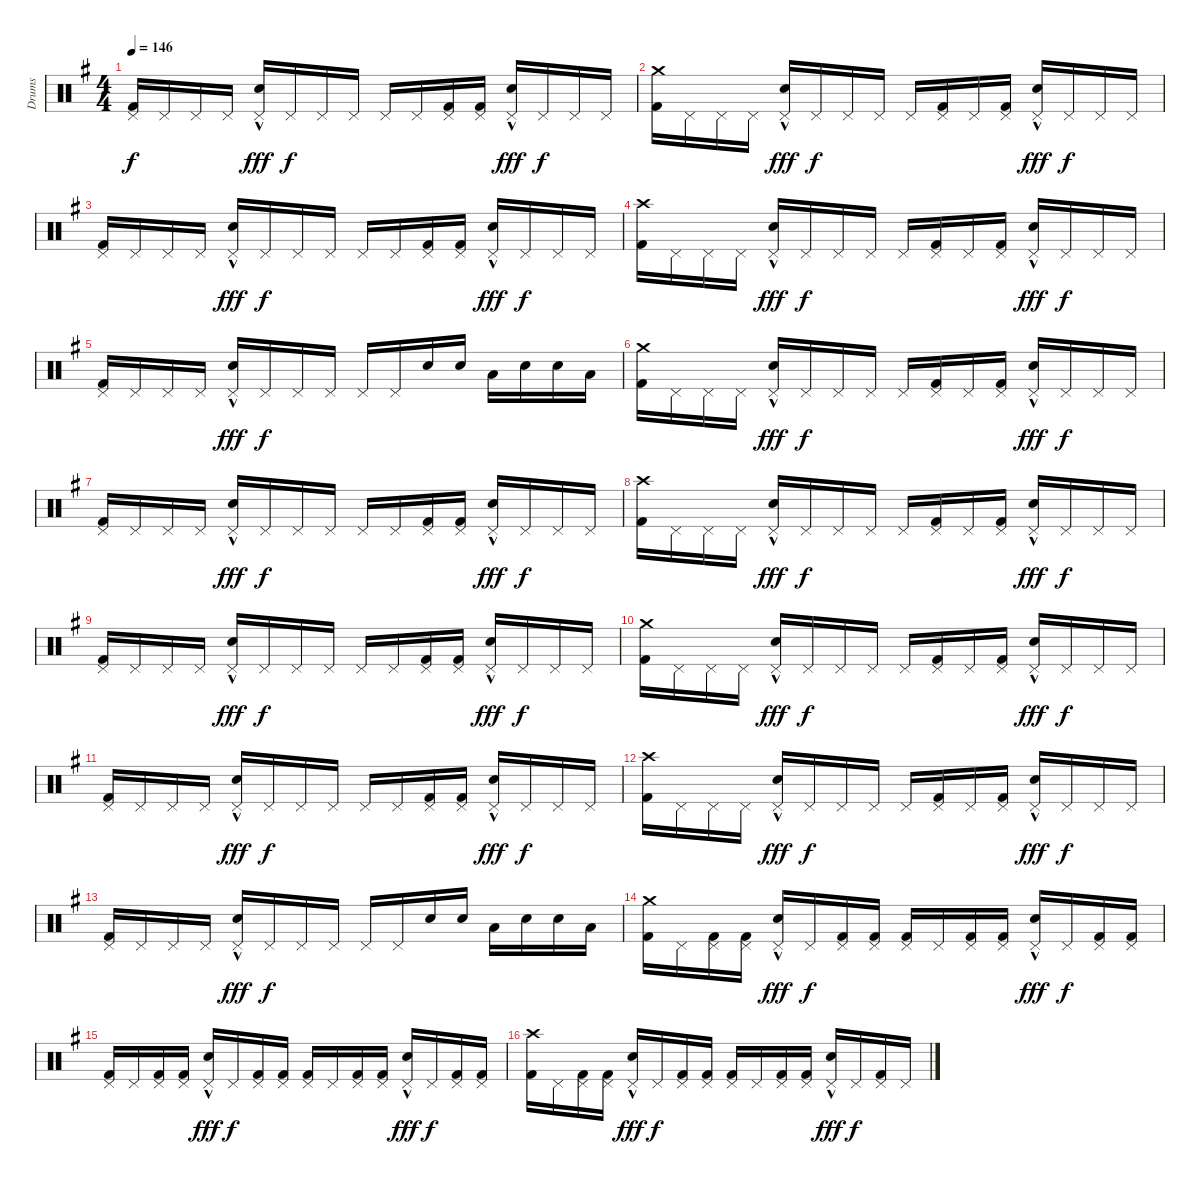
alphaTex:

\track ("Drums" "Drums") {instrument percussion}
\staff {score}
\articulation defaults
\ts (4 4)
\tempo 146
\clef neutral
\ks eminor
("Pedal Hi-Hat (hit)" "Kick (hit) 2").16{dy f} "Pedal Hi-Hat (hit)".16 "Pedal Hi-Hat (hit)".16 "Pedal Hi-Hat (hit)".16 ("Pedal Hi-Hat (hit)"{hac} "Snare (hit) 2").16{dy fff} "Pedal Hi-Hat (hit)".16{dy f} "Pedal Hi-Hat (hit)".16 "Pedal Hi-Hat (hit)".16 "Pedal Hi-Hat (hit)".16 "Pedal Hi-Hat (hit)".16 ("Pedal Hi-Hat (hit)" "Kick (hit) 2").16 ("Pedal Hi-Hat (hit)" "Kick (hit) 2").16 ("Pedal Hi-Hat (hit)"{hac} "Snare (hit) 2").16{dy fff} "Pedal Hi-Hat (hit)".16{dy f} "Pedal Hi-Hat (hit)".16 "Pedal Hi-Hat (hit)".16 |
("Crash medium (hit)" "Kick (hit) 2").16 "Pedal Hi-Hat (hit)".16 "Pedal Hi-Hat (hit)".16 "Pedal Hi-Hat (hit)".16 ("Pedal Hi-Hat (hit)"{hac} "Snare (hit) 2").16{dy fff} "Pedal Hi-Hat (hit)".16{dy f} "Pedal Hi-Hat (hit)".16 "Pedal Hi-Hat (hit)".16 "Pedal Hi-Hat (hit)".16 ("Pedal Hi-Hat (hit)" "Kick (hit) 2").16 "Pedal Hi-Hat (hit)".16 ("Pedal Hi-Hat (hit)" "Kick (hit) 2").16 ("Pedal Hi-Hat (hit)"{hac} "Snare (hit) 2").16{dy fff} "Pedal Hi-Hat (hit)".16{dy f} "Pedal Hi-Hat (hit)".16 "Pedal Hi-Hat (hit)".16 |
("Pedal Hi-Hat (hit)" "Kick (hit) 2").16 "Pedal Hi-Hat (hit)".16 "Pedal Hi-Hat (hit)".16 "Pedal Hi-Hat (hit)".16 ("Pedal Hi-Hat (hit)"{hac} "Snare (hit) 2").16{dy fff} "Pedal Hi-Hat (hit)".16{dy f} "Pedal Hi-Hat (hit)".16 "Pedal Hi-Hat (hit)".16 "Pedal Hi-Hat (hit)".16 "Pedal Hi-Hat (hit)".16 ("Pedal Hi-Hat (hit)" "Kick (hit) 2").16 ("Pedal Hi-Hat (hit)" "Kick (hit) 2").16 ("Pedal Hi-Hat (hit)"{hac} "Snare (hit) 2").16{dy fff} "Pedal Hi-Hat (hit)".16{dy f} "Pedal Hi-Hat (hit)".16 "Pedal Hi-Hat (hit)".16 |
("Crash high (hit)" "Kick (hit) 2").16 "Pedal Hi-Hat (hit)".16 "Pedal Hi-Hat (hit)".16 "Pedal Hi-Hat (hit)".16 ("Pedal Hi-Hat (hit)"{hac} "Snare (hit) 2").16{dy fff} "Pedal Hi-Hat (hit)".16{dy f} "Pedal Hi-Hat (hit)".16 "Pedal Hi-Hat (hit)".16 "Pedal Hi-Hat (hit)".16 ("Pedal Hi-Hat (hit)" "Kick (hit) 2").16 "Pedal Hi-Hat (hit)".16 ("Pedal Hi-Hat (hit)" "Kick (hit) 2").16 ("Pedal Hi-Hat (hit)"{hac} "Snare (hit) 2").16{dy fff} "Pedal Hi-Hat (hit)".16{dy f} "Pedal Hi-Hat (hit)".16 "Pedal Hi-Hat (hit)".16 |
("Pedal Hi-Hat (hit)" "Kick (hit) 2").16 "Pedal Hi-Hat (hit)".16 "Pedal Hi-Hat (hit)".16 "Pedal Hi-Hat (hit)".16 ("Pedal Hi-Hat (hit)"{hac} "Snare (hit) 2").16{dy fff} "Pedal Hi-Hat (hit)".16{dy f} "Pedal Hi-Hat (hit)".16 "Pedal Hi-Hat (hit)".16 "Pedal Hi-Hat (hit)".16 "Pedal Hi-Hat (hit)".16 "Snare (hit) 2".16 "Snare (hit) 2".16 "Low Floor Tom (hit)".16 "Snare (hit) 2".16 "Snare (hit) 2".16 "Low Floor Tom (hit)".16 |
("Crash medium (hit)" "Kick (hit) 2").16 "Pedal Hi-Hat (hit)".16 "Pedal Hi-Hat (hit)".16 "Pedal Hi-Hat (hit)".16 ("Pedal Hi-Hat (hit)"{hac} "Snare (hit) 2").16{dy fff} "Pedal Hi-Hat (hit)".16{dy f} "Pedal Hi-Hat (hit)".16 "Pedal Hi-Hat (hit)".16 "Pedal Hi-Hat (hit)".16 ("Pedal Hi-Hat (hit)" "Kick (hit) 2").16 "Pedal Hi-Hat (hit)".16 ("Pedal Hi-Hat (hit)" "Kick (hit) 2").16 ("Pedal Hi-Hat (hit)"{hac} "Snare (hit) 2").16{dy fff} "Pedal Hi-Hat (hit)".16{dy f} "Pedal Hi-Hat (hit)".16 "Pedal Hi-Hat (hit)".16 |
("Pedal Hi-Hat (hit)" "Kick (hit) 2").16 "Pedal Hi-Hat (hit)".16 "Pedal Hi-Hat (hit)".16 "Pedal Hi-Hat (hit)".16 ("Pedal Hi-Hat (hit)"{hac} "Snare (hit) 2").16{dy fff} "Pedal Hi-Hat (hit)".16{dy f} "Pedal Hi-Hat (hit)".16 "Pedal Hi-Hat (hit)".16 "Pedal Hi-Hat (hit)".16 "Pedal Hi-Hat (hit)".16 ("Pedal Hi-Hat (hit)" "Kick (hit) 2").16 ("Pedal Hi-Hat (hit)" "Kick (hit) 2").16 ("Pedal Hi-Hat (hit)"{hac} "Snare (hit) 2").16{dy fff} "Pedal Hi-Hat (hit)".16{dy f} "Pedal Hi-Hat (hit)".16 "Pedal Hi-Hat (hit)".16 |
("Crash high (hit)" "Kick (hit) 2").16 "Pedal Hi-Hat (hit)".16 "Pedal Hi-Hat (hit)".16 "Pedal Hi-Hat (hit)".16 ("Pedal Hi-Hat (hit)"{hac} "Snare (hit) 2").16{dy fff} "Pedal Hi-Hat (hit)".16{dy f} "Pedal Hi-Hat (hit)".16 "Pedal Hi-Hat (hit)".16 "Pedal Hi-Hat (hit)".16 ("Pedal Hi-Hat (hit)" "Kick (hit) 2").16 "Pedal Hi-Hat (hit)".16 ("Pedal Hi-Hat (hit)" "Kick (hit) 2").16 ("Pedal Hi-Hat (hit)"{hac} "Snare (hit) 2").16{dy fff} "Pedal Hi-Hat (hit)".16{dy f} "Pedal Hi-Hat (hit)".16 "Pedal Hi-Hat (hit)".16 |
("Pedal Hi-Hat (hit)" "Kick (hit) 2").16 "Pedal Hi-Hat (hit)".16 "Pedal Hi-Hat (hit)".16 "Pedal Hi-Hat (hit)".16 ("Pedal Hi-Hat (hit)"{hac} "Snare (hit) 2").16{dy fff} "Pedal Hi-Hat (hit)".16{dy f} "Pedal Hi-Hat (hit)".16 "Pedal Hi-Hat (hit)".16 "Pedal Hi-Hat (hit)".16 "Pedal Hi-Hat (hit)".16 ("Pedal Hi-Hat (hit)" "Kick (hit) 2").16 ("Pedal Hi-Hat (hit)" "Kick (hit) 2").16 ("Pedal Hi-Hat (hit)"{hac} "Snare (hit) 2").16{dy fff} "Pedal Hi-Hat (hit)".16{dy f} "Pedal Hi-Hat (hit)".16 "Pedal Hi-Hat (hit)".16 |
("Crash medium (hit)" "Kick (hit) 2").16 "Pedal Hi-Hat (hit)".16 "Pedal Hi-Hat (hit)".16 "Pedal Hi-Hat (hit)".16 ("Pedal Hi-Hat (hit)"{hac} "Snare (hit) 2").16{dy fff} "Pedal Hi-Hat (hit)".16{dy f} "Pedal Hi-Hat (hit)".16 "Pedal Hi-Hat (hit)".16 "Pedal Hi-Hat (hit)".16 ("Pedal Hi-Hat (hit)" "Kick (hit) 2").16 "Pedal Hi-Hat (hit)".16 ("Pedal Hi-Hat (hit)" "Kick (hit) 2").16 ("Pedal Hi-Hat (hit)"{hac} "Snare (hit) 2").16{dy fff} "Pedal Hi-Hat (hit)".16{dy f} "Pedal Hi-Hat (hit)".16 "Pedal Hi-Hat (hit)".16 |
("Pedal Hi-Hat (hit)" "Kick (hit) 2").16 "Pedal Hi-Hat (hit)".16 "Pedal Hi-Hat (hit)".16 "Pedal Hi-Hat (hit)".16 ("Pedal Hi-Hat (hit)"{hac} "Snare (hit) 2").16{dy fff} "Pedal Hi-Hat (hit)".16{dy f} "Pedal Hi-Hat (hit)".16 "Pedal Hi-Hat (hit)".16 "Pedal Hi-Hat (hit)".16 "Pedal Hi-Hat (hit)".16 ("Pedal Hi-Hat (hit)" "Kick (hit) 2").16 ("Pedal Hi-Hat (hit)" "Kick (hit) 2").16 ("Pedal Hi-Hat (hit)"{hac} "Snare (hit) 2").16{dy fff} "Pedal Hi-Hat (hit)".16{dy f} "Pedal Hi-Hat (hit)".16 "Pedal Hi-Hat (hit)".16 |
("Crash high (hit)" "Kick (hit) 2").16 "Pedal Hi-Hat (hit)".16 "Pedal Hi-Hat (hit)".16 "Pedal Hi-Hat (hit)".16 ("Pedal Hi-Hat (hit)"{hac} "Snare (hit) 2").16{dy fff} "Pedal Hi-Hat (hit)".16{dy f} "Pedal Hi-Hat (hit)".16 "Pedal Hi-Hat (hit)".16 "Pedal Hi-Hat (hit)".16 ("Pedal Hi-Hat (hit)" "Kick (hit) 2").16 "Pedal Hi-Hat (hit)".16 ("Pedal Hi-Hat (hit)" "Kick (hit) 2").16 ("Pedal Hi-Hat (hit)"{hac} "Snare (hit) 2").16{dy fff} "Pedal Hi-Hat (hit)".16{dy f} "Pedal Hi-Hat (hit)".16 "Pedal Hi-Hat (hit)".16 |
("Pedal Hi-Hat (hit)" "Kick (hit) 2").16 "Pedal Hi-Hat (hit)".16 "Pedal Hi-Hat (hit)".16 "Pedal Hi-Hat (hit)".16 ("Pedal Hi-Hat (hit)"{hac} "Snare (hit) 2").16{dy fff} "Pedal Hi-Hat (hit)".16{dy f} "Pedal Hi-Hat (hit)".16 "Pedal Hi-Hat (hit)".16 "Pedal Hi-Hat (hit)".16 "Pedal Hi-Hat (hit)".16 "Snare (hit) 2".16 "Snare (hit) 2".16 "Low Floor Tom (hit)".16 "Snare (hit) 2".16 "Snare (hit) 2".16 "Low Floor Tom (hit)".16 |
("Crash medium (hit)" "Kick (hit) 2").16 "Pedal Hi-Hat (hit)".16 ("Pedal Hi-Hat (hit)" "Kick (hit) 2").16 ("Pedal Hi-Hat (hit)" "Kick (hit) 2").16 ("Pedal Hi-Hat (hit)"{hac} "Snare (hit) 2").16{dy fff} "Pedal Hi-Hat (hit)".16{dy f} ("Pedal Hi-Hat (hit)" "Kick (hit) 2").16 ("Pedal Hi-Hat (hit)" "Kick (hit) 2").16 ("Pedal Hi-Hat (hit)" "Kick (hit) 2").16 "Pedal Hi-Hat (hit)".16 ("Pedal Hi-Hat (hit)" "Kick (hit) 2").16 ("Pedal Hi-Hat (hit)" "Kick (hit) 2").16 ("Pedal Hi-Hat (hit)"{hac} "Snare (hit) 2").16{dy fff} "Pedal Hi-Hat (hit)".16{dy f} ("Pedal Hi-Hat (hit)" "Kick (hit) 2").16 ("Pedal Hi-Hat (hit)" "Kick (hit) 2").16 |
("Pedal Hi-Hat (hit)" "Kick (hit) 2").16 "Pedal Hi-Hat (hit)".16 ("Pedal Hi-Hat (hit)" "Kick (hit) 2").16 ("Pedal Hi-Hat (hit)" "Kick (hit) 2").16 ("Pedal Hi-Hat (hit)"{hac} "Snare (hit) 2").16{dy fff} "Pedal Hi-Hat (hit)".16{dy f} ("Pedal Hi-Hat (hit)" "Kick (hit) 2").16 ("Pedal Hi-Hat (hit)" "Kick (hit) 2").16 ("Pedal Hi-Hat (hit)" "Kick (hit) 2").16 "Pedal Hi-Hat (hit)".16 ("Pedal Hi-Hat (hit)" "Kick (hit) 2").16 ("Pedal Hi-Hat (hit)" "Kick (hit) 2").16 ("Pedal Hi-Hat (hit)"{hac} "Snare (hit) 2").16{dy fff} "Pedal Hi-Hat (hit)".16{dy f} ("Pedal Hi-Hat (hit)" "Kick (hit) 2").16 ("Pedal Hi-Hat (hit)" "Kick (hit) 2").16 |
("Crash high (hit)" "Kick (hit) 2").16 "Pedal Hi-Hat (hit)".16 ("Pedal Hi-Hat (hit)" "Kick (hit) 2").16 ("Pedal Hi-Hat (hit)" "Kick (hit) 2").16 ("Pedal Hi-Hat (hit)"{hac} "Snare (hit) 2").16{dy fff} "Pedal Hi-Hat (hit)".16{dy f} ("Pedal Hi-Hat (hit)" "Kick (hit) 2").16 ("Pedal Hi-Hat (hit)" "Kick (hit) 2").16 ("Pedal Hi-Hat (hit)" "Kick (hit) 2").16 "Pedal Hi-Hat (hit)".16 ("Pedal Hi-Hat (hit)" "Kick (hit) 2").16 ("Pedal Hi-Hat (hit)" "Kick (hit) 2").16 ("Pedal Hi-Hat (hit)"{hac} "Snare (hit) 2").16{dy fff} "Pedal Hi-Hat (hit)".16{dy f} ("Pedal Hi-Hat (hit)" "Kick (hit) 2").16 "Pedal Hi-Hat (hit)".16
